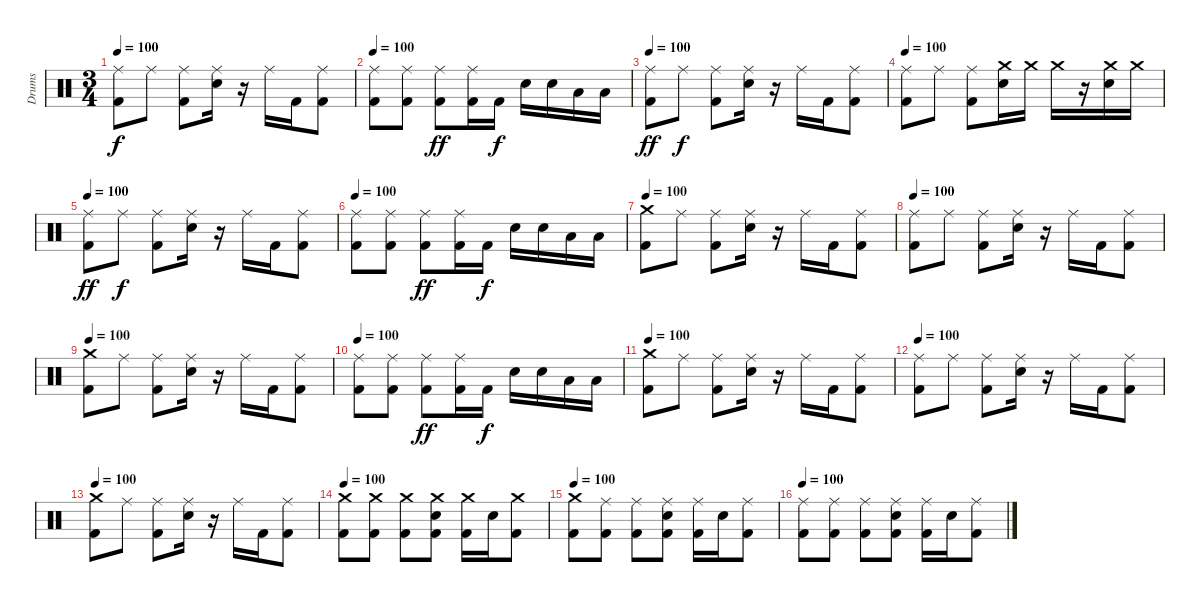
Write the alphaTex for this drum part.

\track ("Drums" "Drums") {instrument percussion}
\staff {score}
\articulation defaults
\ts (3 4)
\tempo 100
\clef neutral
\ks c
("Ride (middle)" "Kick (hit) 2").8{dy f} "Ride (middle)".8 ("Ride (middle)" "Kick (hit) 2").8 ("Ride (middle)" "Electric Snare (hit)").16 r.16 "Ride (middle)".16 "Kick (hit) 2".16 ("Ride (middle)" "Kick (hit) 2").8 |
\tempo 100
("Ride (middle)" "Kick (hit) 2").8 ("Ride (middle)" "Kick (hit) 2").8 ("Ride (middle)" "Kick (hit) 2").8{dy ff} ("Ride (middle)" "Kick (hit) 2").16 "Kick (hit) 2".16{dy f} "Electric Snare (hit)".16 "Electric Snare (hit)".16 "Low Tom (hit)".16 "Low Tom (hit)".16 |
\tempo 100
("Ride (middle)" "Kick (hit) 2").8{dy ff} "Ride (middle)".8{dy f} ("Ride (middle)" "Kick (hit) 2").8 ("Ride (middle)" "Electric Snare (hit)").16 r.16 "Ride (middle)".16 "Kick (hit) 2".16 ("Ride (middle)" "Kick (hit) 2").8 |
\tempo 100
("Ride (middle)" "Kick (hit) 2").8 "Ride (middle)".8 ("Ride (middle)" "Kick (hit) 2").8 ("Crash medium (hit)" "Electric Snare (hit)").16 "Crash medium (hit)".16 "Crash medium (hit)".16 r.16 ("Crash medium (hit)" "Electric Snare (hit)").16 "Crash medium (hit)".16 |
\tempo 100
("Ride (middle)" "Kick (hit) 2").8{dy ff} "Ride (middle)".8{dy f} ("Ride (middle)" "Kick (hit) 2").8 ("Ride (middle)" "Electric Snare (hit)").16 r.16 "Ride (middle)".16 "Kick (hit) 2".16 ("Ride (middle)" "Kick (hit) 2").8 |
\tempo 100
("Ride (middle)" "Kick (hit) 2").8 ("Ride (middle)" "Kick (hit) 2").8 ("Ride (middle)" "Kick (hit) 2").8{dy ff} ("Ride (middle)" "Kick (hit) 2").16 "Kick (hit) 2".16{dy f} "Electric Snare (hit)".16 "Electric Snare (hit)".16 "Low Tom (hit)".16 "Low Tom (hit)".16 |
\tempo 100
("Crash medium (hit)" "Kick (hit) 2").8 "Ride (middle)".8 ("Ride (middle)" "Kick (hit) 2").8 ("Ride (middle)" "Electric Snare (hit)").16 r.16 "Ride (middle)".16 "Kick (hit) 2".16 ("Ride (middle)" "Kick (hit) 2").8 |
\tempo 100
("Ride (middle)" "Kick (hit) 2").8 "Ride (middle)".8 ("Ride (middle)" "Kick (hit) 2").8 ("Ride (middle)" "Electric Snare (hit)").16 r.16 "Ride (middle)".16 "Kick (hit) 2".16 ("Ride (middle)" "Kick (hit) 2").8 |
\tempo 100
("Crash medium (hit)" "Kick (hit) 2").8 "Ride (middle)".8 ("Ride (middle)" "Kick (hit) 2").8 ("Ride (middle)" "Electric Snare (hit)").16 r.16 "Ride (middle)".16 "Kick (hit) 2".16 ("Ride (middle)" "Kick (hit) 2").8 |
\tempo 100
("Ride (middle)" "Kick (hit) 2").8 ("Ride (middle)" "Kick (hit) 2").8 ("Ride (middle)" "Kick (hit) 2").8{dy ff} ("Ride (middle)" "Kick (hit) 2").16 "Kick (hit) 2".16{dy f} "Electric Snare (hit)".16 "Electric Snare (hit)".16 "Low Tom (hit)".16 "Low Tom (hit)".16 |
\tempo 100
("Crash medium (hit)" "Kick (hit) 2").8 "Ride (middle)".8 ("Ride (middle)" "Kick (hit) 2").8 ("Ride (middle)" "Electric Snare (hit)").16 r.16 "Ride (middle)".16 "Kick (hit) 2".16 ("Ride (middle)" "Kick (hit) 2").8 |
\tempo 100
("Ride (middle)" "Kick (hit) 2").8 "Ride (middle)".8 ("Ride (middle)" "Kick (hit) 2").8 ("Ride (middle)" "Electric Snare (hit)").16 r.16 "Ride (middle)".16 "Kick (hit) 2".16 ("Ride (middle)" "Kick (hit) 2").8 |
\tempo 100
("Crash medium (hit)" "Kick (hit) 2").8 "Ride (middle)".8 ("Ride (middle)" "Kick (hit) 2").8 ("Ride (middle)" "Electric Snare (hit)").16 r.16 "Ride (middle)".16 "Kick (hit) 2".16 ("Ride (middle)" "Kick (hit) 2").8 |
\tempo 100
("Crash medium (hit)" "Kick (hit) 2").8 ("Crash medium (hit)" "Kick (hit) 2").8 ("Crash medium (hit)" "Kick (hit) 2").8 ("Crash medium (hit)" "Electric Snare (hit)" "Kick (hit) 2").8 ("Crash medium (hit)" "Kick (hit) 2").16 "Electric Snare (hit)".16 ("Crash medium (hit)" "Kick (hit) 2").8 |
\tempo 100
("Crash medium (hit)" "Kick (hit) 2").8 ("Ride (middle)" "Kick (hit) 2").8 ("Ride (middle)" "Kick (hit) 2").8 ("Ride (middle)" "Electric Snare (hit)" "Kick (hit) 2").8 ("Ride (middle)" "Kick (hit) 2").16 "Electric Snare (hit)".16 ("Ride (middle)" "Kick (hit) 2").8 |
\tempo 100
("Ride (middle)" "Kick (hit) 2").8 ("Ride (middle)" "Kick (hit) 2").8 ("Ride (middle)" "Kick (hit) 2").8 ("Ride (middle)" "Electric Snare (hit)" "Kick (hit) 2").8 ("Ride (middle)" "Kick (hit) 2").16 "Electric Snare (hit)".16 ("Ride (middle)" "Kick (hit) 2").8
